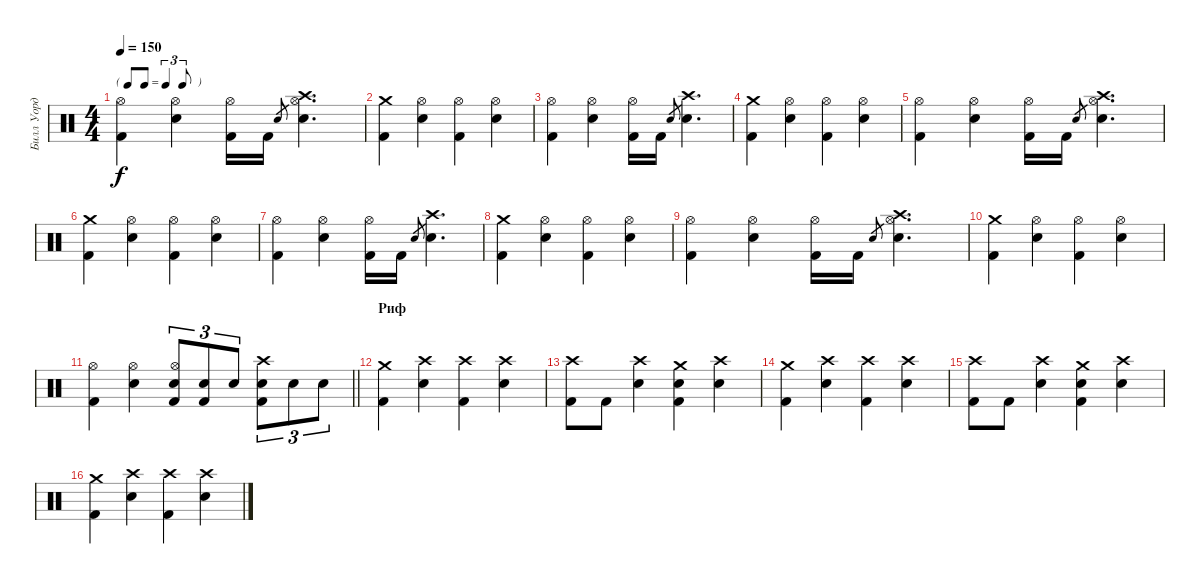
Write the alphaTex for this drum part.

\track ("Билл Уорд" "Билл Уорд") {instrument percussion}
\staff {score}
\articulation defaults
\ts (4 4)
\tf triplet8th
\tempo 150
\clef neutral
\ks c
("Kick (hit) 2" "Hi-Hat (open)").4{dy f} ("Snare (hit) 2" "Hi-Hat (open)").4 ("Kick (hit) 2" "Hi-Hat (open)").16 "Kick (hit) 2".16 "Snare (hit) 2".8{gr} ("Snare (hit) 2" "Hi-Hat (open)" "Crash high (hit)").4{d} |
("Crash medium (hit)" "Kick (hit) 2").4 ("Hi-Hat (open)" "Snare (hit) 2").4 ("Hi-Hat (open)" "Kick (hit) 2").4 ("Hi-Hat (open)" "Snare (hit) 2").4 |
("Kick (hit) 2" "Hi-Hat (open)").4 ("Snare (hit) 2" "Hi-Hat (open)").4 ("Kick (hit) 2" "Hi-Hat (open)").16 "Kick (hit) 2".16 "Snare (hit) 2".8{gr} ("Snare (hit) 2" "Crash high (hit)").4{d} |
("Crash medium (hit)" "Kick (hit) 2").4 ("Hi-Hat (open)" "Snare (hit) 2").4 ("Hi-Hat (open)" "Kick (hit) 2").4 ("Hi-Hat (open)" "Snare (hit) 2").4 |
("Kick (hit) 2" "Hi-Hat (open)").4 ("Snare (hit) 2" "Hi-Hat (open)").4 ("Kick (hit) 2" "Hi-Hat (open)").16 "Kick (hit) 2".16 "Snare (hit) 2".8{gr} ("Snare (hit) 2" "Hi-Hat (open)" "Crash high (hit)").4{d} |
("Crash medium (hit)" "Kick (hit) 2").4 ("Hi-Hat (open)" "Snare (hit) 2").4 ("Hi-Hat (open)" "Kick (hit) 2").4 ("Hi-Hat (open)" "Snare (hit) 2").4 |
("Kick (hit) 2" "Hi-Hat (open)").4 ("Snare (hit) 2" "Hi-Hat (open)").4 ("Kick (hit) 2" "Hi-Hat (open)").16 "Kick (hit) 2".16 "Snare (hit) 2".8{gr} ("Snare (hit) 2" "Crash high (hit)").4{d} |
("Crash medium (hit)" "Kick (hit) 2").4 ("Hi-Hat (open)" "Snare (hit) 2").4 ("Hi-Hat (open)" "Kick (hit) 2").4 ("Hi-Hat (open)" "Snare (hit) 2").4 |
("Kick (hit) 2" "Hi-Hat (open)").4 ("Snare (hit) 2" "Hi-Hat (open)").4 ("Kick (hit) 2" "Hi-Hat (open)").16 "Kick (hit) 2".16 "Snare (hit) 2".8{gr} ("Snare (hit) 2" "Hi-Hat (open)" "Crash high (hit)").4{d} |
("Crash medium (hit)" "Kick (hit) 2").4 ("Hi-Hat (open)" "Snare (hit) 2").4 ("Hi-Hat (open)" "Kick (hit) 2").4 ("Hi-Hat (open)" "Snare (hit) 2").4 |
\barLineRight lightlight
("Kick (hit) 2" "Hi-Hat (open)").4 ("Snare (hit) 2" "Hi-Hat (open)").4 ("Kick (hit) 2" "Hi-Hat (open)" "Snare (hit) 2").8{tu (3 2)} ("Kick (hit) 2" "Snare (hit) 2").8{tu (3 2)} "Snare (hit) 2".8{tu (3 2)} ("Snare (hit) 2" "Kick (hit) 2" "Crash high (hit)").8{tu (3 2)} "Snare (hit) 2".8{tu (3 2)} "Snare (hit) 2".8{tu (3 2)} |
\section ("" "Риф")
("Kick (hit) 2" "Crash medium (hit)").4 ("Snare (hit) 2" "Crash high (hit)").4 ("Kick (hit) 2" "Crash high (hit)").4 ("Snare (hit) 2" "Crash high (hit)").4 |
("Kick (hit) 2" "Crash high (hit)").8 "Kick (hit) 2".8 ("Snare (hit) 2" "Crash high (hit)").4 ("Snare (hit) 2" "Kick (hit) 2" "Crash medium (hit)").4 ("Snare (hit) 2" "Crash high (hit)").4 |
("Kick (hit) 2" "Crash medium (hit)").4 ("Snare (hit) 2" "Crash high (hit)").4 ("Kick (hit) 2" "Crash high (hit)").4 ("Snare (hit) 2" "Crash high (hit)").4 |
("Kick (hit) 2" "Crash high (hit)").8 "Kick (hit) 2".8 ("Snare (hit) 2" "Crash high (hit)").4 ("Snare (hit) 2" "Kick (hit) 2" "Crash medium (hit)").4 ("Snare (hit) 2" "Crash high (hit)").4 |
("Kick (hit) 2" "Crash medium (hit)").4 ("Snare (hit) 2" "Crash high (hit)").4 ("Kick (hit) 2" "Crash high (hit)").4 ("Snare (hit) 2" "Crash high (hit)").4
